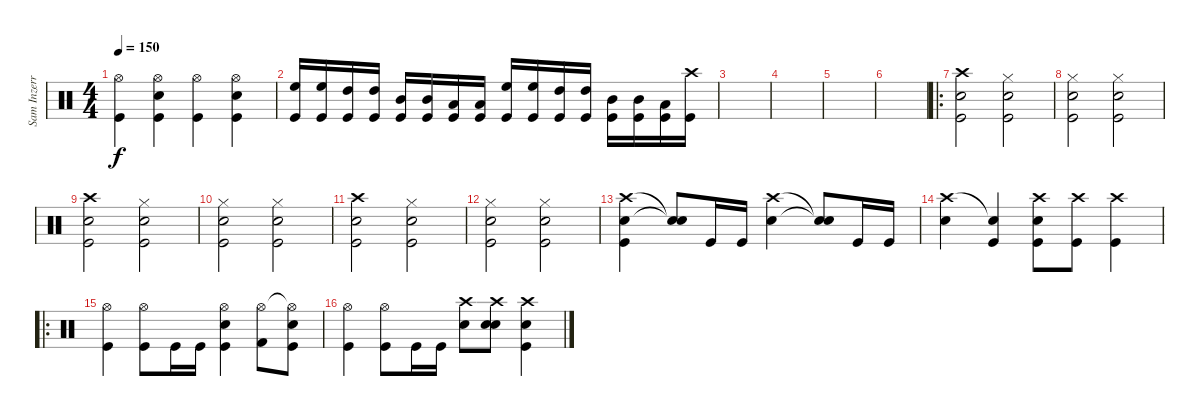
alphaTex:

\track ("Sam Inzerra(Percusión)" "Sam Inzerr") {instrument percussion}
\staff {score}
\articulation defaults
\ts (4 4)
\tempo 150
\clef neutral
\ks c
("Hi-Hat (open)" "Kick (hit)").4{dy f} ("Hi-Hat (open)" "Electric Snare (hit)" "Kick (hit)").4 ("Hi-Hat (open)" "Kick (hit)").4 ("Hi-Hat (open)" "Electric Snare (hit)" "Kick (hit)").4 |
("Kick (hit)" "High Floor Tom (hit)").16 ("Kick (hit)" "High Floor Tom (hit)").16 ("Kick (hit)" "High Tom (hit)").16 ("Kick (hit)" "High Tom (hit)").16 ("Kick (hit)" "Mid Tom (hit)").16 ("Kick (hit)" "Mid Tom (hit)").16 ("Kick (hit)" "Low Tom (hit)").16 ("Kick (hit)" "Low Tom (hit)").16 ("Kick (hit)" "High Floor Tom (hit)").16 ("Kick (hit)" "High Floor Tom (hit)").16 ("Kick (hit)" "High Tom (hit)").16 ("Kick (hit)" "High Tom (hit)").16 ("Kick (hit)" "Mid Tom (hit)").16 ("Kick (hit)" "Mid Tom (hit)").16 ("Kick (hit)" "Low Tom (hit)").16 ("Kick (hit)" "Crash high (hit)").16 |
|
|
|
|
\ro
("Crash high (hit)" "Electric Snare (hit)" "Kick (hit)").2 ("Hi-Hat (closed)" "Electric Snare (hit)" "Kick (hit)").2 |
("Hi-Hat (closed)" "Electric Snare (hit)" "Kick (hit)").2 ("Hi-Hat (closed)" "Electric Snare (hit)" "Kick (hit)").2 |
("Crash high (hit)" "Electric Snare (hit)" "Kick (hit)").2 ("Hi-Hat (closed)" "Electric Snare (hit)" "Kick (hit)").2 |
("Hi-Hat (closed)" "Electric Snare (hit)" "Kick (hit)").2 ("Hi-Hat (closed)" "Electric Snare (hit)" "Kick (hit)").2 |
("Crash high (hit)" "Electric Snare (hit)" "Kick (hit)").2 ("Hi-Hat (closed)" "Electric Snare (hit)" "Kick (hit)").2 |
("Hi-Hat (closed)" "Electric Snare (hit)" "Kick (hit)").2 ("Hi-Hat (closed)" "Electric Snare (hit)" "Kick (hit)").2 |
("Crash high (hit)" "Electric Snare (hit)" "Kick (hit)").4 ("Snare (hit)"{t} "Snare (hit)"{t}).8 "Kick (hit)".16 "Kick (hit)".16 ("Crash high (hit)" "Electric Snare (hit)").4 ("Snare (hit)"{t} "Snare (hit)"{t}).8 "Kick (hit)".16 "Kick (hit)".16 |
("Crash high (hit)" "Electric Snare (hit)").4 ("Snare (hit) 2"{t} "Kick (hit)").4 ("Crash high (hit)" "Electric Snare (hit)" "Kick (hit)").8 ("Crash high (hit)" "Kick (hit)").8 ("Crash high (hit)" "Kick (hit)").4 |
\ro
("Hi-Hat (open)" "Kick (hit)").4 ("Hi-Hat (open)" "Kick (hit)").8 "Kick (hit)".16 "Kick (hit)".16 ("Hi-Hat (open)" "Electric Snare (hit)" "Kick (hit)").4 ("Hi-Hat (open)" "Kick (hit) 2").8 ("Hi-Hat (open)"{t} "Electric Snare (hit)" "Kick (hit)").8 |
("Hi-Hat (open)" "Kick (hit)").4 ("Hi-Hat (open)" "Kick (hit)").8 "Kick (hit)".16 "Kick (hit)".16 ("Crash high (hit)" "Electric Snare (hit)").8 ("Crash high (hit)" "Electric Snare (hit)" "Electric Snare (hit)").8 ("Crash high (hit)" "Electric Snare (hit)" "Kick (hit)").4
